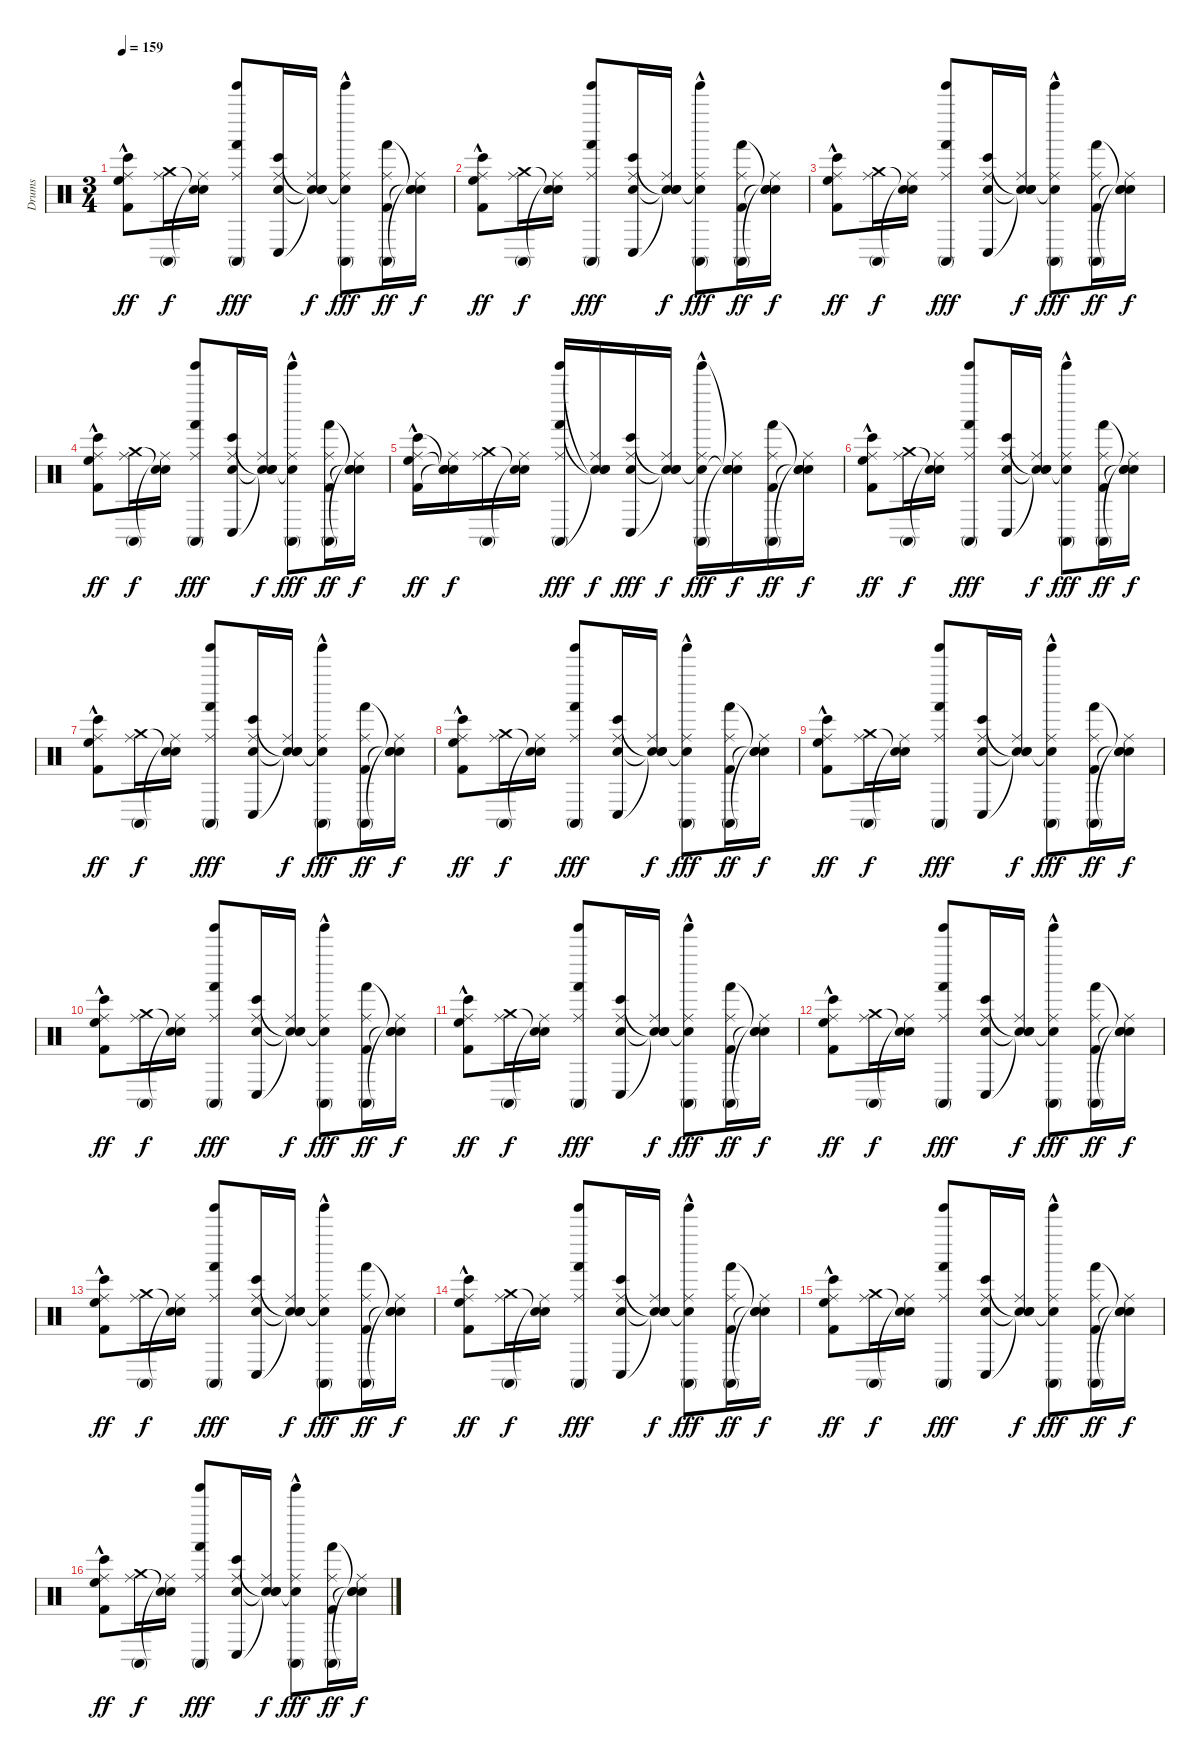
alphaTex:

\track ("Drums" "Drums") {instrument percussion}
\staff {score}
\articulation defaults
\ts (3 4)
\tempo 159
\clef neutral
\ks c
("Kick (hit) 2" "Bongo High (hit)"{hac} "Ride (middle)" "High Floor Tom (hit)").8{dy ff} ("Conga high (mute)" "Ride (middle)" "Crash medium (hit)").16{dy f} ("Snare (hit)"{t} "Ride (middle)" "Snare (hit)"{t}).16 ("Tinkle Bell (hit)" "Hand (hit)" "Ride (middle)" "Conga high (mute)").8{dy fff} ("Snare (hit) 2" "Bongo High (hit)" "Ride (middle)" "Conga low (hit)").16 ("Snare (hit)"{t} "Snare (hit)"{t} "Ride (middle)" "Snare (hit)"{t}).16{dy f} ("Tinkle Bell (hit)" "Conga high (mute)"{hac} "Ride (middle)" "Snare (hit)"{t}).8{dy fff} ("Kick (hit) 2" "Hand (hit)" "Ride (middle)" "Conga high (mute)").16{dy ff} ("Snare (hit)"{t} "Snare (hit)"{t} "Ride (middle)" "Snare (hit)"{t}).16{dy f} |
("Kick (hit) 2" "Bongo High (hit)"{hac} "Ride (middle)" "High Floor Tom (hit)").8{dy ff} ("Conga high (mute)" "Ride (middle)" "Crash medium (hit)").16{dy f} ("Snare (hit)"{t} "Ride (middle)" "Snare (hit)"{t}).16 ("Tinkle Bell (hit)" "Hand (hit)" "Ride (middle)" "Conga high (mute)").8{dy fff} ("Snare (hit) 2" "Bongo High (hit)" "Ride (middle)" "Conga low (hit)").16 ("Snare (hit)"{t} "Snare (hit)"{t} "Ride (middle)" "Snare (hit)"{t}).16{dy f} ("Tinkle Bell (hit)" "Conga high (mute)"{hac} "Ride (middle)" "Snare (hit)"{t}).8{dy fff} ("Kick (hit) 2" "Hand (hit)" "Ride (middle)" "Conga high (mute)").16{dy ff} ("Snare (hit)"{t} "Snare (hit)"{t} "Ride (middle)" "Snare (hit)"{t}).16{dy f} |
("Kick (hit) 2" "Bongo High (hit)"{hac} "Ride (middle)" "High Floor Tom (hit)").8{dy ff} ("Conga high (mute)" "Ride (middle)" "Crash medium (hit)").16{dy f} ("Snare (hit)"{t} "Ride (middle)" "Snare (hit)"{t}).16 ("Tinkle Bell (hit)" "Hand (hit)" "Ride (middle)" "Conga high (mute)").8{dy fff} ("Snare (hit) 2" "Bongo High (hit)" "Ride (middle)" "Conga low (hit)").16 ("Snare (hit)"{t} "Snare (hit)"{t} "Ride (middle)" "Snare (hit)"{t}).16{dy f} ("Tinkle Bell (hit)" "Conga high (mute)"{hac} "Ride (middle)" "Snare (hit)"{t}).8{dy fff} ("Kick (hit) 2" "Hand (hit)" "Ride (middle)" "Conga high (mute)").16{dy ff} ("Snare (hit)"{t} "Snare (hit)"{t} "Ride (middle)" "Snare (hit)"{t}).16{dy f} |
("Kick (hit) 2" "Bongo High (hit)"{hac} "Ride (middle)" "High Floor Tom (hit)").8{dy ff} ("Conga high (mute)" "Ride (middle)" "Crash medium (hit)").16{dy f} ("Snare (hit)"{t} "Ride (middle)" "Snare (hit)"{t}).16 ("Tinkle Bell (hit)" "Hand (hit)" "Ride (middle)" "Conga high (mute)").8{dy fff} ("Snare (hit) 2" "Bongo High (hit)" "Ride (middle)" "Conga low (hit)").16 ("Snare (hit)"{t} "Snare (hit)"{t} "Ride (middle)" "Snare (hit)"{t}).16{dy f} ("Tinkle Bell (hit)" "Conga high (mute)"{hac} "Ride (middle)" "Snare (hit)"{t}).8{dy fff} ("Kick (hit) 2" "Hand (hit)" "Ride (middle)" "Conga high (mute)").16{dy ff} ("Snare (hit)"{t} "Snare (hit)"{t} "Ride (middle)" "Snare (hit)"{t}).16{dy f} |
("Kick (hit) 2" "Bongo High (hit)"{hac} "Ride (middle)" "High Floor Tom (hit)").16{dy ff} ("Snare (hit)"{t} "Snare (hit)"{t} "Ride (middle)" "Snare (hit)"{t}).16{dy f} ("Conga high (mute)" "Ride (middle)" "Crash medium (hit)").16 ("Snare (hit)"{t} "Ride (middle)" "Snare (hit)"{t}).16 ("Tinkle Bell (hit)" "Hand (hit)" "Ride (middle)" "Conga high (mute)").16{dy fff} ("Snare (hit)"{t} "Snare (hit)"{t} "Ride (middle)" "Snare (hit)"{t}).16{dy f} ("Snare (hit) 2" "Bongo High (hit)" "Ride (middle)" "Conga low (hit)").16{dy fff} ("Snare (hit)"{t} "Snare (hit)"{t} "Ride (middle)" "Snare (hit)"{t}).16{dy f} ("Tinkle Bell (hit)" "Conga high (mute)"{hac} "Ride (middle)" "Snare (hit)"{t}).16{dy fff} ("Snare (hit)"{t} "Snare (hit)"{t} "Ride (middle)" "Snare (hit)"{t}).16{dy f} ("Kick (hit) 2" "Hand (hit)" "Ride (middle)" "Conga high (mute)").16{dy ff} ("Snare (hit)"{t} "Snare (hit)"{t} "Ride (middle)" "Snare (hit)"{t}).16{dy f} |
("Kick (hit) 2" "Bongo High (hit)"{hac} "Ride (middle)" "High Floor Tom (hit)").8{dy ff} ("Conga high (mute)" "Ride (middle)" "Crash medium (hit)").16{dy f} ("Snare (hit)"{t} "Ride (middle)" "Snare (hit)"{t}).16 ("Tinkle Bell (hit)" "Hand (hit)" "Ride (middle)" "Conga high (mute)").8{dy fff} ("Snare (hit) 2" "Bongo High (hit)" "Ride (middle)" "Conga low (hit)").16 ("Snare (hit)"{t} "Snare (hit)"{t} "Ride (middle)" "Snare (hit)"{t}).16{dy f} ("Tinkle Bell (hit)" "Conga high (mute)"{hac} "Ride (middle)" "Snare (hit)"{t}).8{dy fff} ("Kick (hit) 2" "Hand (hit)" "Ride (middle)" "Conga high (mute)").16{dy ff} ("Snare (hit)"{t} "Snare (hit)"{t} "Ride (middle)" "Snare (hit)"{t}).16{dy f} |
("Kick (hit) 2" "Bongo High (hit)"{hac} "Ride (middle)" "High Floor Tom (hit)").8{dy ff} ("Conga high (mute)" "Ride (middle)" "Crash medium (hit)").16{dy f} ("Snare (hit)"{t} "Ride (middle)" "Snare (hit)"{t}).16 ("Tinkle Bell (hit)" "Hand (hit)" "Ride (middle)" "Conga high (mute)").8{dy fff} ("Snare (hit) 2" "Bongo High (hit)" "Ride (middle)" "Conga low (hit)").16 ("Snare (hit)"{t} "Snare (hit)"{t} "Ride (middle)" "Snare (hit)"{t}).16{dy f} ("Tinkle Bell (hit)" "Conga high (mute)"{hac} "Ride (middle)" "Snare (hit)"{t}).8{dy fff} ("Kick (hit) 2" "Hand (hit)" "Ride (middle)" "Conga high (mute)").16{dy ff} ("Snare (hit)"{t} "Snare (hit)"{t} "Ride (middle)" "Snare (hit)"{t}).16{dy f} |
("Kick (hit) 2" "Bongo High (hit)"{hac} "Ride (middle)" "High Floor Tom (hit)").8{dy ff} ("Conga high (mute)" "Ride (middle)" "Crash medium (hit)").16{dy f} ("Snare (hit)"{t} "Ride (middle)" "Snare (hit)"{t}).16 ("Tinkle Bell (hit)" "Hand (hit)" "Ride (middle)" "Conga high (mute)").8{dy fff} ("Snare (hit) 2" "Bongo High (hit)" "Ride (middle)" "Conga low (hit)").16 ("Snare (hit)"{t} "Snare (hit)"{t} "Ride (middle)" "Snare (hit)"{t}).16{dy f} ("Tinkle Bell (hit)" "Conga high (mute)"{hac} "Ride (middle)" "Snare (hit)"{t}).8{dy fff} ("Kick (hit) 2" "Hand (hit)" "Ride (middle)" "Conga high (mute)").16{dy ff} ("Snare (hit)"{t} "Snare (hit)"{t} "Ride (middle)" "Snare (hit)"{t}).16{dy f} |
("Kick (hit) 2" "Bongo High (hit)"{hac} "Ride (middle)" "High Floor Tom (hit)").8{dy ff} ("Conga high (mute)" "Ride (middle)" "Crash medium (hit)").16{dy f} ("Snare (hit)"{t} "Ride (middle)" "Snare (hit)"{t}).16 ("Tinkle Bell (hit)" "Hand (hit)" "Ride (middle)" "Conga high (mute)").8{dy fff} ("Snare (hit) 2" "Bongo High (hit)" "Ride (middle)" "Conga low (hit)").16 ("Snare (hit)"{t} "Snare (hit)"{t} "Ride (middle)" "Snare (hit)"{t}).16{dy f} ("Tinkle Bell (hit)" "Conga high (mute)"{hac} "Ride (middle)" "Snare (hit)"{t}).8{dy fff} ("Kick (hit) 2" "Hand (hit)" "Ride (middle)" "Conga high (mute)").16{dy ff} ("Snare (hit)"{t} "Snare (hit)"{t} "Ride (middle)" "Snare (hit)"{t}).16{dy f} |
("Kick (hit) 2" "Bongo High (hit)"{hac} "Ride (middle)" "High Floor Tom (hit)").8{dy ff} ("Conga high (mute)" "Ride (middle)" "Crash medium (hit)").16{dy f} ("Snare (hit)"{t} "Ride (middle)" "Snare (hit)"{t}).16 ("Tinkle Bell (hit)" "Hand (hit)" "Ride (middle)" "Conga high (mute)").8{dy fff} ("Snare (hit) 2" "Bongo High (hit)" "Ride (middle)" "Conga low (hit)").16 ("Snare (hit)"{t} "Snare (hit)"{t} "Ride (middle)" "Snare (hit)"{t}).16{dy f} ("Tinkle Bell (hit)" "Conga high (mute)"{hac} "Ride (middle)" "Snare (hit)"{t}).8{dy fff} ("Kick (hit) 2" "Hand (hit)" "Ride (middle)" "Conga high (mute)").16{dy ff} ("Snare (hit)"{t} "Snare (hit)"{t} "Ride (middle)" "Snare (hit)"{t}).16{dy f} |
("Kick (hit) 2" "Bongo High (hit)"{hac} "Ride (middle)" "High Floor Tom (hit)").8{dy ff} ("Conga high (mute)" "Ride (middle)" "Crash medium (hit)").16{dy f} ("Snare (hit)"{t} "Ride (middle)" "Snare (hit)"{t}).16 ("Tinkle Bell (hit)" "Hand (hit)" "Ride (middle)" "Conga high (mute)").8{dy fff} ("Snare (hit) 2" "Bongo High (hit)" "Ride (middle)" "Conga low (hit)").16 ("Snare (hit)"{t} "Snare (hit)"{t} "Ride (middle)" "Snare (hit)"{t}).16{dy f} ("Tinkle Bell (hit)" "Conga high (mute)"{hac} "Ride (middle)" "Snare (hit)"{t}).8{dy fff} ("Kick (hit) 2" "Hand (hit)" "Ride (middle)" "Conga high (mute)").16{dy ff} ("Snare (hit)"{t} "Snare (hit)"{t} "Ride (middle)" "Snare (hit)"{t}).16{dy f} |
("Kick (hit) 2" "Bongo High (hit)"{hac} "Ride (middle)" "High Floor Tom (hit)").8{dy ff} ("Conga high (mute)" "Ride (middle)" "Crash medium (hit)").16{dy f} ("Snare (hit)"{t} "Ride (middle)" "Snare (hit)"{t}).16 ("Tinkle Bell (hit)" "Hand (hit)" "Ride (middle)" "Conga high (mute)").8{dy fff} ("Snare (hit) 2" "Bongo High (hit)" "Ride (middle)" "Conga low (hit)").16 ("Snare (hit)"{t} "Snare (hit)"{t} "Ride (middle)" "Snare (hit)"{t}).16{dy f} ("Tinkle Bell (hit)" "Conga high (mute)"{hac} "Ride (middle)" "Snare (hit)"{t}).8{dy fff} ("Kick (hit) 2" "Hand (hit)" "Ride (middle)" "Conga high (mute)").16{dy ff} ("Snare (hit)"{t} "Snare (hit)"{t} "Ride (middle)" "Snare (hit)"{t}).16{dy f} |
("Kick (hit) 2" "Bongo High (hit)"{hac} "Ride (middle)" "High Floor Tom (hit)").8{dy ff} ("Conga high (mute)" "Ride (middle)" "Crash medium (hit)").16{dy f} ("Snare (hit)"{t} "Ride (middle)" "Snare (hit)"{t}).16 ("Tinkle Bell (hit)" "Hand (hit)" "Ride (middle)" "Conga high (mute)").8{dy fff} ("Snare (hit) 2" "Bongo High (hit)" "Ride (middle)" "Conga low (hit)").16 ("Snare (hit)"{t} "Snare (hit)"{t} "Ride (middle)" "Snare (hit)"{t}).16{dy f} ("Tinkle Bell (hit)" "Conga high (mute)"{hac} "Ride (middle)" "Snare (hit)"{t}).8{dy fff} ("Kick (hit) 2" "Hand (hit)" "Ride (middle)" "Conga high (mute)").16{dy ff} ("Snare (hit)"{t} "Snare (hit)"{t} "Ride (middle)" "Snare (hit)"{t}).16{dy f} |
("Kick (hit) 2" "Bongo High (hit)"{hac} "Ride (middle)" "High Floor Tom (hit)").8{dy ff} ("Conga high (mute)" "Ride (middle)" "Crash medium (hit)").16{dy f} ("Snare (hit)"{t} "Ride (middle)" "Snare (hit)"{t}).16 ("Tinkle Bell (hit)" "Hand (hit)" "Ride (middle)" "Conga high (mute)").8{dy fff} ("Snare (hit) 2" "Bongo High (hit)" "Ride (middle)" "Conga low (hit)").16 ("Snare (hit)"{t} "Snare (hit)"{t} "Ride (middle)" "Snare (hit)"{t}).16{dy f} ("Tinkle Bell (hit)" "Conga high (mute)"{hac} "Ride (middle)" "Snare (hit)"{t}).8{dy fff} ("Kick (hit) 2" "Hand (hit)" "Ride (middle)" "Conga high (mute)").16{dy ff} ("Snare (hit)"{t} "Snare (hit)"{t} "Ride (middle)" "Snare (hit)"{t}).16{dy f} |
("Kick (hit) 2" "Bongo High (hit)"{hac} "Ride (middle)" "High Floor Tom (hit)").8{dy ff} ("Conga high (mute)" "Ride (middle)" "Crash medium (hit)").16{dy f} ("Snare (hit)"{t} "Ride (middle)" "Snare (hit)"{t}).16 ("Tinkle Bell (hit)" "Hand (hit)" "Ride (middle)" "Conga high (mute)").8{dy fff} ("Snare (hit) 2" "Bongo High (hit)" "Ride (middle)" "Conga low (hit)").16 ("Snare (hit)"{t} "Snare (hit)"{t} "Ride (middle)" "Snare (hit)"{t}).16{dy f} ("Tinkle Bell (hit)" "Conga high (mute)"{hac} "Ride (middle)" "Snare (hit)"{t}).8{dy fff} ("Kick (hit) 2" "Hand (hit)" "Ride (middle)" "Conga high (mute)").16{dy ff} ("Snare (hit)"{t} "Snare (hit)"{t} "Ride (middle)" "Snare (hit)"{t}).16{dy f} |
("Kick (hit) 2" "Bongo High (hit)"{hac} "Ride (middle)" "High Floor Tom (hit)").8{dy ff} ("Conga high (mute)" "Ride (middle)" "Crash medium (hit)").16{dy f} ("Snare (hit)"{t} "Ride (middle)" "Snare (hit)"{t}).16 ("Tinkle Bell (hit)" "Hand (hit)" "Ride (middle)" "Conga high (mute)").8{dy fff} ("Snare (hit) 2" "Bongo High (hit)" "Ride (middle)" "Conga low (hit)").16 ("Snare (hit)"{t} "Snare (hit)"{t} "Ride (middle)" "Snare (hit)"{t}).16{dy f} ("Tinkle Bell (hit)" "Conga high (mute)"{hac} "Ride (middle)" "Snare (hit)"{t}).8{dy fff} ("Kick (hit) 2" "Hand (hit)" "Ride (middle)" "Conga high (mute)").16{dy ff} ("Snare (hit)"{t} "Snare (hit)"{t} "Ride (middle)" "Snare (hit)"{t}).16{dy f}
